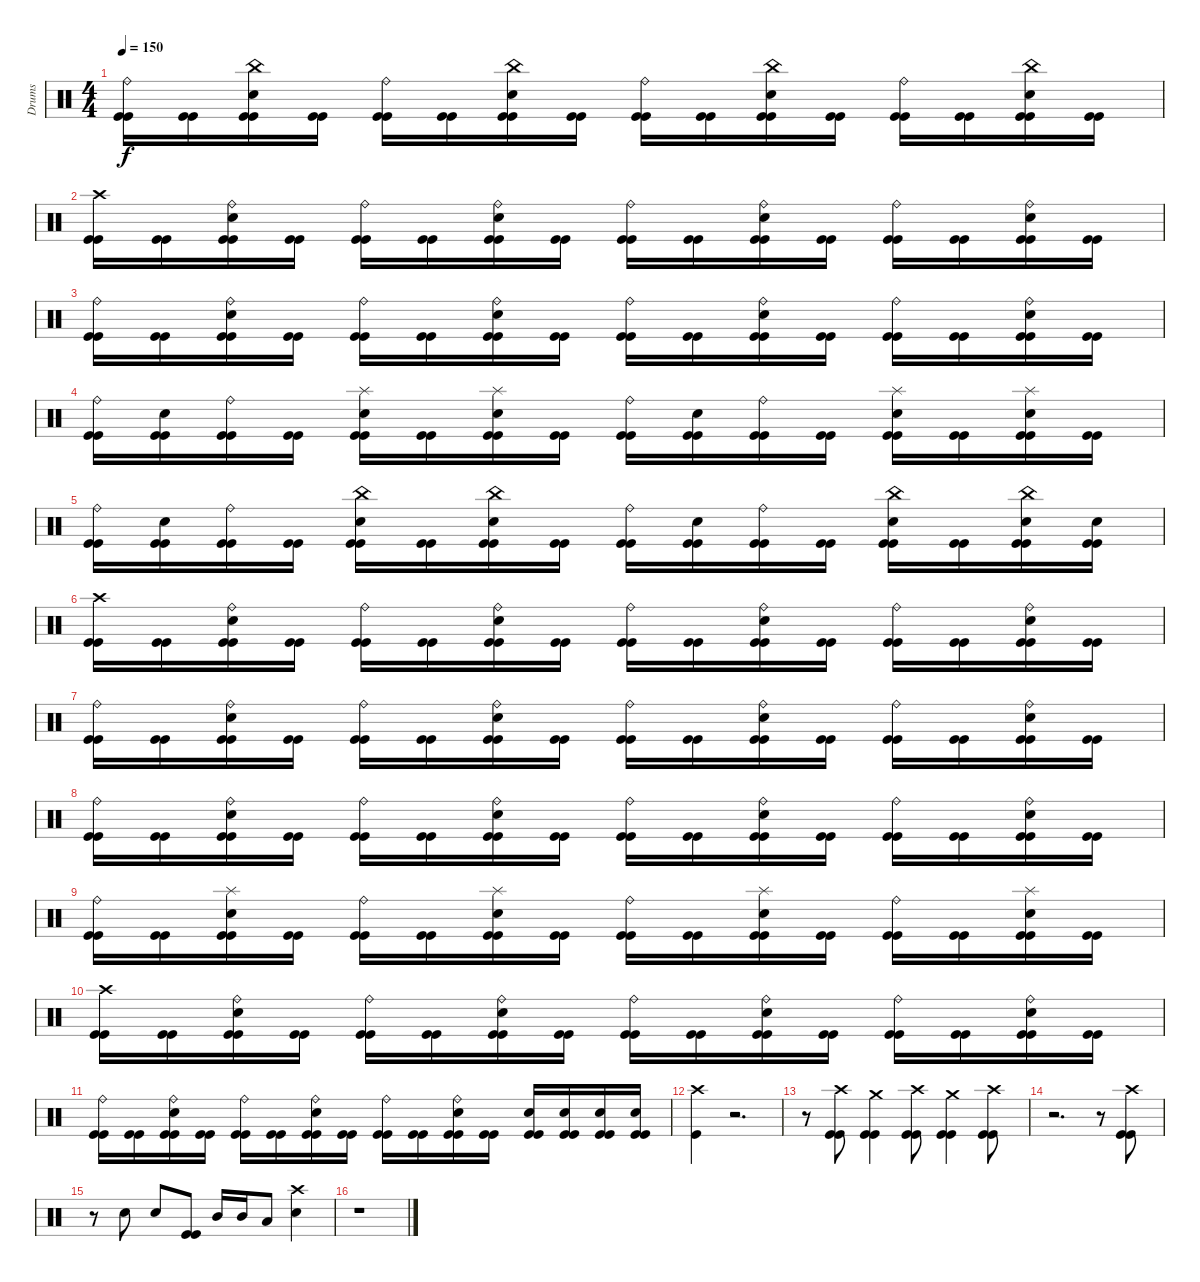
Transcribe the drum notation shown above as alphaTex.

\track ("Drums" "Drums") {instrument percussion}
\staff {score}
\articulation defaults
\ts (4 4)
\tempo 150
\clef neutral
\ks c
("Kick (hit)" "Kick (hit)" "Ride (bell)").16{dy f} ("Kick (hit)" "Kick (hit)").16 ("Kick (hit)" "Kick (hit)" "Snare (hit) 2" "China (hit)").16 ("Kick (hit)" "Kick (hit)").16 ("Kick (hit)" "Kick (hit)" "Ride (bell)").16 ("Kick (hit)" "Kick (hit)").16 ("Kick (hit)" "Kick (hit)" "Snare (hit) 2" "China (hit)").16 ("Kick (hit)" "Kick (hit)").16 ("Kick (hit)" "Kick (hit)" "Ride (bell)").16 ("Kick (hit)" "Kick (hit)").16 ("Kick (hit)" "Kick (hit)" "Snare (hit) 2" "China (hit)").16 ("Kick (hit)" "Kick (hit)").16 ("Kick (hit)" "Kick (hit)" "Ride (bell)").16 ("Kick (hit)" "Kick (hit)").16 ("Kick (hit)" "Kick (hit)" "Snare (hit) 2" "China (hit)").16 ("Kick (hit)" "Kick (hit)").16 |
("Kick (hit)" "Kick (hit)" "Crash high (hit)").16 ("Kick (hit)" "Kick (hit)").16 ("Kick (hit)" "Kick (hit)" "Snare (hit) 2" "Ride (bell)").16 ("Kick (hit)" "Kick (hit)").16 ("Kick (hit)" "Kick (hit)" "Ride (bell)").16 ("Kick (hit)" "Kick (hit)").16 ("Kick (hit)" "Kick (hit)" "Snare (hit) 2" "Ride (bell)").16 ("Kick (hit)" "Kick (hit)").16 ("Kick (hit)" "Kick (hit)" "Ride (bell)").16 ("Kick (hit)" "Kick (hit)").16 ("Kick (hit)" "Kick (hit)" "Snare (hit) 2" "Ride (bell)").16 ("Kick (hit)" "Kick (hit)").16 ("Kick (hit)" "Kick (hit)" "Ride (bell)").16 ("Kick (hit)" "Kick (hit)").16 ("Kick (hit)" "Kick (hit)" "Snare (hit) 2" "Ride (bell)").16 ("Kick (hit)" "Kick (hit)").16 |
("Kick (hit)" "Kick (hit)" "Ride (bell)").16 ("Kick (hit)" "Kick (hit)").16 ("Kick (hit)" "Kick (hit)" "Snare (hit) 2" "Ride (bell)").16 ("Kick (hit)" "Kick (hit)").16 ("Kick (hit)" "Kick (hit)" "Ride (bell)").16 ("Kick (hit)" "Kick (hit)").16 ("Kick (hit)" "Kick (hit)" "Snare (hit) 2" "Ride (bell)").16 ("Kick (hit)" "Kick (hit)").16 ("Kick (hit)" "Kick (hit)" "Ride (bell)").16 ("Kick (hit)" "Kick (hit)").16 ("Kick (hit)" "Kick (hit)" "Snare (hit) 2" "Ride (bell)").16 ("Kick (hit)" "Kick (hit)").16 ("Kick (hit)" "Kick (hit)" "Ride (bell)").16 ("Kick (hit)" "Kick (hit)").16 ("Kick (hit)" "Kick (hit)" "Snare (hit) 2" "Ride (bell)").16 ("Kick (hit)" "Kick (hit)").16 |
("Kick (hit)" "Kick (hit)" "Ride (bell)").16 ("Kick (hit)" "Kick (hit)" "Snare (hit) 2").16 ("Kick (hit)" "Kick (hit)" "Ride (bell)").16 ("Kick (hit)" "Kick (hit)").16 ("Kick (hit)" "Kick (hit)" "Snare (hit) 2" "Splash (hit)").16 ("Kick (hit)" "Kick (hit)").16 ("Kick (hit)" "Kick (hit)" "Snare (hit) 2" "Splash (hit)").16 ("Kick (hit)" "Kick (hit)").16 ("Kick (hit)" "Kick (hit)" "Ride (bell)").16 ("Kick (hit)" "Kick (hit)" "Snare (hit) 2").16 ("Kick (hit)" "Kick (hit)" "Ride (bell)").16 ("Kick (hit)" "Kick (hit)").16 ("Kick (hit)" "Kick (hit)" "Snare (hit) 2" "Splash (hit)").16 ("Kick (hit)" "Kick (hit)").16 ("Kick (hit)" "Kick (hit)" "Snare (hit) 2" "Splash (hit)").16 ("Kick (hit)" "Kick (hit)").16 |
("Kick (hit)" "Kick (hit)" "Ride (bell)").16 ("Kick (hit)" "Kick (hit)" "Snare (hit) 2").16 ("Kick (hit)" "Kick (hit)" "Ride (bell)").16 ("Kick (hit)" "Kick (hit)").16 ("Kick (hit)" "Kick (hit)" "Snare (hit) 2" "China (hit)").16 ("Kick (hit)" "Kick (hit)").16 ("Kick (hit)" "Kick (hit)" "Snare (hit) 2" "China (hit)").16 ("Kick (hit)" "Kick (hit)").16 ("Kick (hit)" "Kick (hit)" "Ride (bell)").16 ("Kick (hit)" "Kick (hit)" "Snare (hit) 2").16 ("Kick (hit)" "Kick (hit)" "Ride (bell)").16 ("Kick (hit)" "Kick (hit)").16 ("Kick (hit)" "Kick (hit)" "Snare (hit) 2" "China (hit)").16 ("Kick (hit)" "Kick (hit)").16 ("Kick (hit)" "Kick (hit)" "Snare (hit) 2" "China (hit)").16 ("Kick (hit)" "Kick (hit)" "Snare (hit) 2").16 |
("Kick (hit)" "Kick (hit)" "Crash high (hit)").16 ("Kick (hit)" "Kick (hit)").16 ("Kick (hit)" "Kick (hit)" "Snare (hit) 2" "Ride (bell)").16 ("Kick (hit)" "Kick (hit)").16 ("Kick (hit)" "Kick (hit)" "Ride (bell)").16 ("Kick (hit)" "Kick (hit)").16 ("Kick (hit)" "Kick (hit)" "Snare (hit) 2" "Ride (bell)").16 ("Kick (hit)" "Kick (hit)").16 ("Kick (hit)" "Kick (hit)" "Ride (bell)").16 ("Kick (hit)" "Kick (hit)").16 ("Kick (hit)" "Kick (hit)" "Snare (hit) 2" "Ride (bell)").16 ("Kick (hit)" "Kick (hit)").16 ("Kick (hit)" "Kick (hit)" "Ride (bell)").16 ("Kick (hit)" "Kick (hit)").16 ("Kick (hit)" "Kick (hit)" "Snare (hit) 2" "Ride (bell)").16 ("Kick (hit)" "Kick (hit)").16 |
("Kick (hit)" "Kick (hit)" "Ride (bell)").16 ("Kick (hit)" "Kick (hit)").16 ("Kick (hit)" "Kick (hit)" "Snare (hit) 2" "Ride (bell)").16 ("Kick (hit)" "Kick (hit)").16 ("Kick (hit)" "Kick (hit)" "Ride (bell)").16 ("Kick (hit)" "Kick (hit)").16 ("Kick (hit)" "Kick (hit)" "Snare (hit) 2" "Ride (bell)").16 ("Kick (hit)" "Kick (hit)").16 ("Kick (hit)" "Kick (hit)" "Ride (bell)").16 ("Kick (hit)" "Kick (hit)").16 ("Kick (hit)" "Kick (hit)" "Snare (hit) 2" "Ride (bell)").16 ("Kick (hit)" "Kick (hit)").16 ("Kick (hit)" "Kick (hit)" "Ride (bell)").16 ("Kick (hit)" "Kick (hit)").16 ("Kick (hit)" "Kick (hit)" "Snare (hit) 2" "Ride (bell)").16 ("Kick (hit)" "Kick (hit)").16 |
("Kick (hit)" "Kick (hit)" "Ride (bell)").16 ("Kick (hit)" "Kick (hit)").16 ("Kick (hit)" "Kick (hit)" "Snare (hit) 2" "Ride (bell)").16 ("Kick (hit)" "Kick (hit)").16 ("Kick (hit)" "Kick (hit)" "Ride (bell)").16 ("Kick (hit)" "Kick (hit)").16 ("Kick (hit)" "Kick (hit)" "Snare (hit) 2" "Ride (bell)").16 ("Kick (hit)" "Kick (hit)").16 ("Kick (hit)" "Kick (hit)" "Ride (bell)").16 ("Kick (hit)" "Kick (hit)").16 ("Kick (hit)" "Kick (hit)" "Snare (hit) 2" "Ride (bell)").16 ("Kick (hit)" "Kick (hit)").16 ("Kick (hit)" "Kick (hit)" "Ride (bell)").16 ("Kick (hit)" "Kick (hit)").16 ("Kick (hit)" "Kick (hit)" "Snare (hit) 2" "Ride (bell)").16 ("Kick (hit)" "Kick (hit)").16 |
("Kick (hit)" "Kick (hit)" "Ride (bell)").16 ("Kick (hit)" "Kick (hit)").16 ("Kick (hit)" "Kick (hit)" "Snare (hit) 2" "Splash (hit)").16 ("Kick (hit)" "Kick (hit)").16 ("Kick (hit)" "Kick (hit)" "Ride (bell)").16 ("Kick (hit)" "Kick (hit)").16 ("Kick (hit)" "Kick (hit)" "Snare (hit) 2" "Splash (hit)").16 ("Kick (hit)" "Kick (hit)").16 ("Kick (hit)" "Kick (hit)" "Ride (bell)").16 ("Kick (hit)" "Kick (hit)").16 ("Kick (hit)" "Kick (hit)" "Snare (hit) 2" "Splash (hit)").16 ("Kick (hit)" "Kick (hit)").16 ("Kick (hit)" "Kick (hit)" "Ride (bell)").16 ("Kick (hit)" "Kick (hit)").16 ("Kick (hit)" "Kick (hit)" "Snare (hit) 2" "Splash (hit)").16 ("Kick (hit)" "Kick (hit)").16 |
("Kick (hit)" "Kick (hit)" "Crash high (hit)").16 ("Kick (hit)" "Kick (hit)").16 ("Kick (hit)" "Kick (hit)" "Snare (hit) 2" "Ride (bell)").16 ("Kick (hit)" "Kick (hit)").16 ("Kick (hit)" "Kick (hit)" "Ride (bell)").16 ("Kick (hit)" "Kick (hit)").16 ("Kick (hit)" "Kick (hit)" "Snare (hit) 2" "Ride (bell)").16 ("Kick (hit)" "Kick (hit)").16 ("Kick (hit)" "Kick (hit)" "Ride (bell)").16 ("Kick (hit)" "Kick (hit)").16 ("Kick (hit)" "Kick (hit)" "Snare (hit) 2" "Ride (bell)").16 ("Kick (hit)" "Kick (hit)").16 ("Kick (hit)" "Kick (hit)" "Ride (bell)").16 ("Kick (hit)" "Kick (hit)").16 ("Kick (hit)" "Kick (hit)" "Snare (hit) 2" "Ride (bell)").16 ("Kick (hit)" "Kick (hit)").16 |
("Kick (hit)" "Kick (hit)" "Ride (bell)").16 ("Kick (hit)" "Kick (hit)").16 ("Kick (hit)" "Kick (hit)" "Snare (hit) 2" "Ride (bell)").16 ("Kick (hit)" "Kick (hit)").16 ("Kick (hit)" "Kick (hit)" "Ride (bell)").16 ("Kick (hit)" "Kick (hit)").16 ("Kick (hit)" "Kick (hit)" "Snare (hit) 2" "Ride (bell)").16 ("Kick (hit)" "Kick (hit)").16 ("Kick (hit)" "Kick (hit)" "Ride (bell)").16 ("Kick (hit)" "Kick (hit)").16 ("Kick (hit)" "Kick (hit)" "Snare (hit) 2" "Ride (bell)").16 ("Kick (hit)" "Kick (hit)").16 ("Kick (hit)" "Kick (hit)" "Snare (hit) 2").16 ("Kick (hit)" "Kick (hit)" "Snare (hit) 2").16 ("Kick (hit)" "Kick (hit)" "Snare (hit) 2").16 ("Kick (hit)" "Kick (hit)" "Snare (hit) 2").16 |
("Kick (hit)" "Crash high (hit)").4 r.2{d} |
r.8 ("Kick (hit)" "Kick (hit)" "Crash high (hit)").8 ("Kick (hit)" "Kick (hit)" "Crash medium (hit)").4 ("Kick (hit)" "Kick (hit)" "Crash high (hit)").8 ("Kick (hit)" "Kick (hit)" "Crash medium (hit)").4 ("Kick (hit)" "Kick (hit)" "Crash high (hit)").8 |
r.2{d} r.8 ("Kick (hit)" "Kick (hit)" "Crash high (hit)").8 |
r.8 "Snare (hit) 2".8 "Snare (hit) 2".8 ("Kick (hit)" "Kick (hit)").8 "Mid Tom (hit)".16 "Mid Tom (hit)".16 "Low Tom (hit)".8 ("Snare (hit) 2" "Crash high (hit)").4 |
r.1
